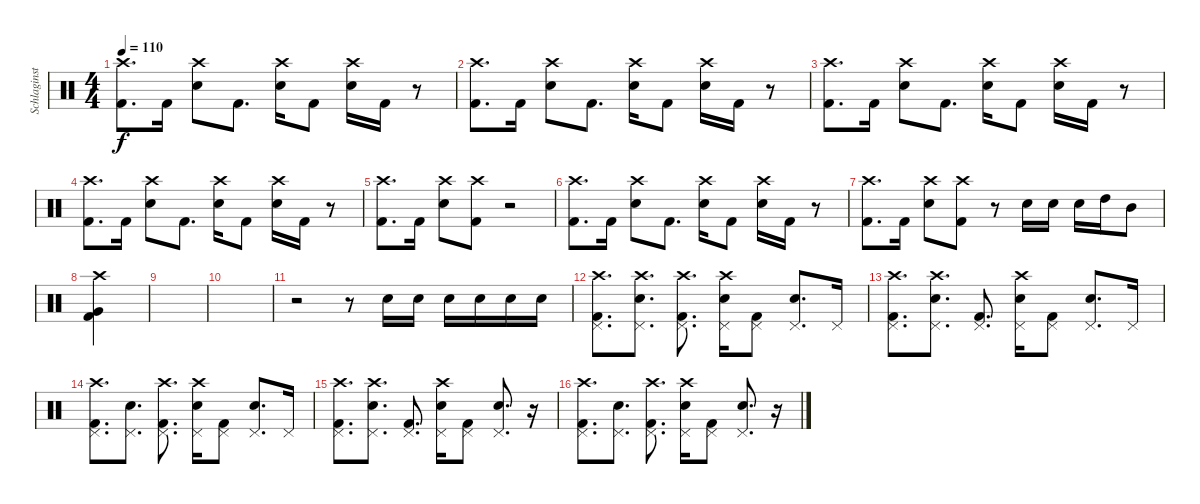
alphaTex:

\track ("Schlaginstrumente - Auswahl" "Schlaginst") {instrument percussion}
\staff {score}
\articulation defaults
\ts (4 4)
\tempo 110
\clef neutral
\ks c
("Crash high (hit)" "Kick (hit) 2").8{d dy f} "Kick (hit) 2".16 ("Crash high (hit)" "Snare (hit) 2").8 "Kick (hit) 2".8{d} ("Crash high (hit)" "Snare (hit) 2").16 "Kick (hit) 2".8 ("Crash high (hit)" "Snare (hit) 2").16 "Kick (hit) 2".16 r.8 |
("Crash high (hit)" "Kick (hit) 2").8{d} "Kick (hit) 2".16 ("Crash high (hit)" "Snare (hit) 2").8 "Kick (hit) 2".8{d} ("Crash high (hit)" "Snare (hit) 2").16 "Kick (hit) 2".8 ("Crash high (hit)" "Snare (hit) 2").16 "Kick (hit) 2".16 r.8 |
("Crash high (hit)" "Kick (hit) 2").8{d} "Kick (hit) 2".16 ("Crash high (hit)" "Snare (hit) 2").8 "Kick (hit) 2".8{d} ("Crash high (hit)" "Snare (hit) 2").16 "Kick (hit) 2".8 ("Crash high (hit)" "Snare (hit) 2").16 "Kick (hit) 2".16 r.8 |
("Crash high (hit)" "Kick (hit) 2").8{d} "Kick (hit) 2".16 ("Crash high (hit)" "Snare (hit) 2").8 "Kick (hit) 2".8{d} ("Crash high (hit)" "Snare (hit) 2").16 "Kick (hit) 2".8 ("Crash high (hit)" "Snare (hit) 2").16 "Kick (hit) 2".16 r.8 |
("Crash high (hit)" "Kick (hit) 2").8{d} "Kick (hit) 2".16 ("Crash high (hit)" "Snare (hit) 2").8 ("Crash high (hit)" "Kick (hit) 2").8 r.2 |
("Crash high (hit)" "Kick (hit) 2").8{d} "Kick (hit) 2".16 ("Crash high (hit)" "Snare (hit) 2").8 "Kick (hit) 2".8{d} ("Crash high (hit)" "Snare (hit) 2").16 "Kick (hit) 2".8 ("Crash high (hit)" "Snare (hit) 2").16 "Kick (hit) 2".16 r.8 |
("Crash high (hit)" "Kick (hit) 2").8{d} "Kick (hit) 2".16 ("Crash high (hit)" "Snare (hit) 2").8 ("Crash high (hit)" "Kick (hit) 2").8 r.8 "Snare (hit) 2".16 "Snare (hit) 2".16 "Snare (hit) 2".16 "High Tom (hit)".16 "Mid Tom (hit)".8 |
("Crash high (hit)" "Kick (hit) 2" "Very Low Tom (hit)").4 |
|
|
r.2 r.8 "Snare (hit) 2".16 "Snare (hit) 2".16 "Snare (hit) 2".16 "Snare (hit) 2".16 "Snare (hit) 2".16 "Snare (hit) 2".16 |
("Pedal Hi-Hat (hit)" "Crash high (hit)" "Kick (hit) 2").8{d} ("Pedal Hi-Hat (hit)" "Crash high (hit)" "Snare (hit) 2").8{d} ("Pedal Hi-Hat (hit)" "Crash high (hit)" "Kick (hit) 2").8{d} ("Pedal Hi-Hat (hit)" "Crash high (hit)" "Snare (hit) 2").16 ("Pedal Hi-Hat (hit)" "Kick (hit) 2").8 ("Pedal Hi-Hat (hit)" "Snare (hit) 2").8{d} "Pedal Hi-Hat (hit)".16 |
("Pedal Hi-Hat (hit)" "Crash high (hit)" "Kick (hit) 2").8{d} ("Pedal Hi-Hat (hit)" "Crash high (hit)" "Snare (hit) 2").8{d} ("Pedal Hi-Hat (hit)" "Kick (hit) 2").8{d} ("Pedal Hi-Hat (hit)" "Crash high (hit)" "Snare (hit) 2").16 ("Pedal Hi-Hat (hit)" "Kick (hit) 2").8 ("Pedal Hi-Hat (hit)" "Snare (hit) 2").8{d} "Pedal Hi-Hat (hit)".16 |
("Pedal Hi-Hat (hit)" "Crash high (hit)" "Kick (hit) 2").8{d} ("Pedal Hi-Hat (hit)" "Snare (hit) 2").8{d} ("Pedal Hi-Hat (hit)" "Crash high (hit)" "Kick (hit) 2").8{d} ("Pedal Hi-Hat (hit)" "Crash high (hit)" "Snare (hit) 2").16 ("Pedal Hi-Hat (hit)" "Kick (hit) 2").8 ("Pedal Hi-Hat (hit)" "Snare (hit) 2").8{d} "Pedal Hi-Hat (hit)".16 |
("Pedal Hi-Hat (hit)" "Crash high (hit)" "Kick (hit) 2").8{d} ("Pedal Hi-Hat (hit)" "Crash high (hit)" "Snare (hit) 2").8{d} ("Pedal Hi-Hat (hit)" "Kick (hit) 2").8{d} ("Pedal Hi-Hat (hit)" "Crash high (hit)" "Snare (hit) 2").16 ("Pedal Hi-Hat (hit)" "Kick (hit) 2").8 ("Pedal Hi-Hat (hit)" "Snare (hit) 2").8{d} r.16 |
("Pedal Hi-Hat (hit)" "Crash high (hit)" "Kick (hit) 2").8{d} ("Pedal Hi-Hat (hit)" "Snare (hit) 2").8{d} ("Pedal Hi-Hat (hit)" "Crash high (hit)" "Kick (hit) 2").8{d} ("Pedal Hi-Hat (hit)" "Crash high (hit)" "Snare (hit) 2").16 ("Pedal Hi-Hat (hit)" "Kick (hit) 2").8 ("Pedal Hi-Hat (hit)" "Snare (hit) 2").8{d} r.16
